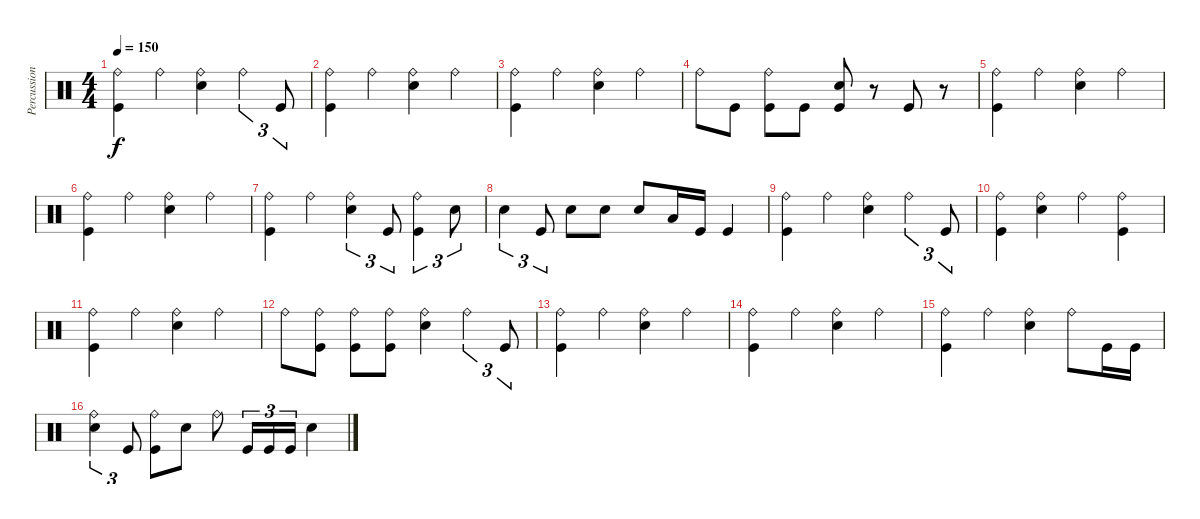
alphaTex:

\track ("Percussion" "Percussion") {instrument percussion}
\staff {score}
\articulation defaults
\ts (4 4)
\tempo 150
\clef neutral
\ks c
("Ride (bell)" "Kick (hit)").4{dy f} "Ride (bell)".4 ("Ride (bell)" "Snare (hit) 2").4 "Ride (bell)".4{tu (3 2)} "Kick (hit)".8{tu (3 2)} |
("Ride (bell)" "Kick (hit)").4 "Ride (bell)".4 ("Ride (bell)" "Snare (hit) 2").4 "Ride (bell)".4 |
("Ride (bell)" "Kick (hit)").4 "Ride (bell)".4 ("Ride (bell)" "Snare (hit) 2").4 "Ride (bell)".4 |
"Ride (bell)".8 "Kick (hit)".8 ("Ride (bell)" "Kick (hit)").8 "Kick (hit)".8 ("Kick (hit)" "Snare (hit) 2").8 r.8 "Kick (hit)".8 r.8 |
("Ride (bell)" "Kick (hit)").4 "Ride (bell)".4 ("Ride (bell)" "Snare (hit) 2").4 "Ride (bell)".4 |
("Ride (bell)" "Kick (hit)").4 "Ride (bell)".4 ("Ride (bell)" "Snare (hit) 2").4 "Ride (bell)".4 |
("Ride (bell)" "Kick (hit)").4 "Ride (bell)".4 ("Ride (bell)" "Snare (hit) 2").4{tu (3 2)} "Kick (hit)".8{tu (3 2)} ("Ride (bell)" "Kick (hit)").4{tu (3 2)} "Snare (hit) 2".8{tu (3 2)} |
"Snare (hit) 2".4{tu (3 2)} "Kick (hit)".8{tu (3 2)} "Snare (hit) 2".8 "Snare (hit) 2".8 "Snare (hit) 2".8 "Low Floor Tom (hit)".16 "Kick (hit)".16 "Kick (hit)".4 |
("Ride (bell)" "Kick (hit)").4 "Ride (bell)".4 ("Ride (bell)" "Snare (hit) 2").4 "Ride (bell)".4{tu (3 2)} "Kick (hit)".8{tu (3 2)} |
("Ride (bell)" "Kick (hit)").4 ("Ride (bell)" "Snare (hit) 2").4 "Ride (bell)".4 ("Ride (bell)" "Kick (hit)").4 |
("Ride (bell)" "Kick (hit)").4 "Ride (bell)".4 ("Ride (bell)" "Snare (hit) 2").4 "Ride (bell)".4 |
"Ride (bell)".8 ("Ride (bell)" "Kick (hit)").8 ("Ride (bell)" "Kick (hit)").8 ("Ride (bell)" "Kick (hit)").8 ("Ride (bell)" "Snare (hit) 2").4 "Ride (bell)".4{tu (3 2)} "Kick (hit)".8{tu (3 2)} |
("Ride (bell)" "Kick (hit)").4 "Ride (bell)".4 ("Ride (bell)" "Snare (hit) 2").4 "Ride (bell)".4 |
("Ride (bell)" "Kick (hit)").4 "Ride (bell)".4 ("Ride (bell)" "Snare (hit) 2").4 "Ride (bell)".4 |
("Ride (bell)" "Kick (hit)").4 "Ride (bell)".4 ("Ride (bell)" "Snare (hit) 2").4 "Ride (bell)".8 "Kick (hit)".16 "Kick (hit)".16 |
("Ride (bell)" "Snare (hit) 2").4{tu (3 2)} "Kick (hit)".8{tu (3 2)} ("Ride (bell)" "Kick (hit)").8 "Snare (hit) 2".8 "Ride (bell)".8 "Kick (hit)".16{tu (3 2)} "Kick (hit)".16{tu (3 2)} "Kick (hit)".16{tu (3 2)} "Snare (hit) 2".4
